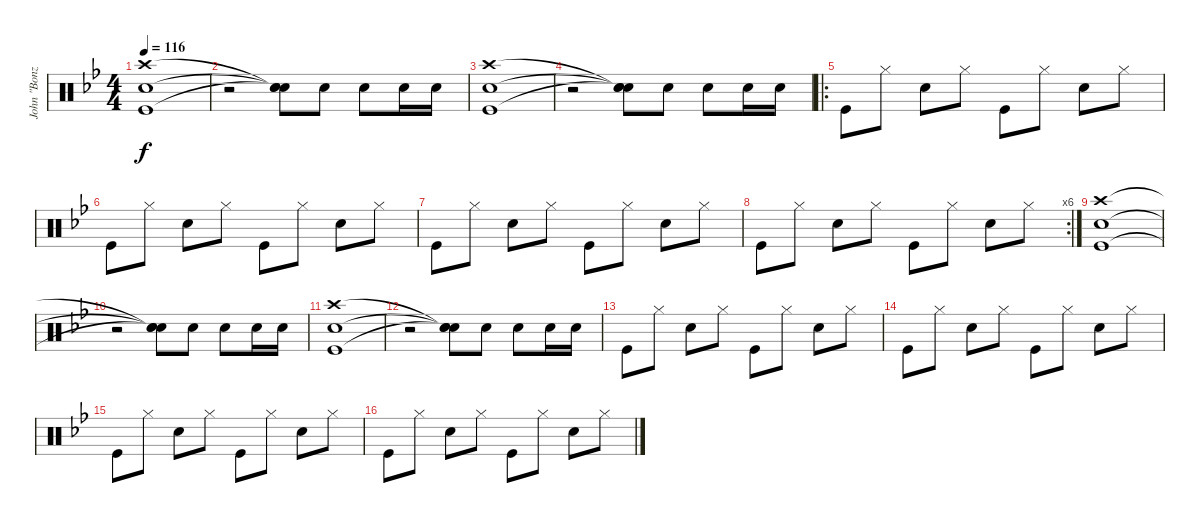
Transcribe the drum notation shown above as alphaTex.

\track ("John \"Bonzo\" Bonham" "John \"Bonz") {instrument percussion}
\staff {score}
\articulation defaults
\ts (4 4)
\tempo 116
\clef neutral
\ks bb
("Kick (hit)" "Snare (hit) 2" "Crash high (hit)").1{dy f} |
r.2 ("Snare (hit)"{t} "Snare (hit)"{t} "Snare (hit)"{t}).8 "Snare (hit) 2".8 "Snare (hit) 2".8 "Snare (hit) 2".16 "Snare (hit) 2".16 |
("Kick (hit)" "Snare (hit) 2" "Crash high (hit)").1 |
r.2 ("Snare (hit)"{t} "Snare (hit)"{t} "Snare (hit)"{t}).8 "Snare (hit) 2".8 "Snare (hit) 2".8 "Snare (hit) 2".16 "Snare (hit) 2".16 |
\ro "Kick (hit)".8 "Hi-Hat (closed)".8 "Snare (hit) 2".8 "Hi-Hat (closed)".8 "Kick (hit)".8 "Hi-Hat (closed)".8 "Snare (hit) 2".8 "Hi-Hat (closed)".8
|
"Kick (hit)".8 "Hi-Hat (closed)".8 "Snare (hit) 2".8 "Hi-Hat (closed)".8 "Kick (hit)".8 "Hi-Hat (closed)".8 "Snare (hit) 2".8 "Hi-Hat (closed)".8 |
"Kick (hit)".8 "Hi-Hat (closed)".8 "Snare (hit) 2".8 "Hi-Hat (closed)".8 "Kick (hit)".8 "Hi-Hat (closed)".8 "Snare (hit) 2".8 "Hi-Hat (closed)".8 |
\rc 6 "Kick (hit)".8 "Hi-Hat (closed)".8 "Snare (hit) 2".8 "Hi-Hat (closed)".8 "Kick (hit)".8 "Hi-Hat (closed)".8 "Snare (hit) 2".8 "Hi-Hat (closed)".8
|
("Kick (hit)" "Snare (hit) 2" "Crash high (hit)").1 |
r.2 ("Snare (hit)"{t} "Snare (hit)"{t} "Snare (hit)"{t}).8 "Snare (hit) 2".8 "Snare (hit) 2".8 "Snare (hit) 2".16 "Snare (hit) 2".16 |
("Kick (hit)" "Snare (hit) 2" "Crash high (hit)").1 |
r.2 ("Snare (hit)"{t} "Snare (hit)"{t} "Snare (hit)"{t}).8 "Snare (hit) 2".8 "Snare (hit) 2".8 "Snare (hit) 2".16 "Snare (hit) 2".16 |
"Kick (hit)".8 "Hi-Hat (closed)".8 "Snare (hit) 2".8 "Hi-Hat (closed)".8 "Kick (hit)".8 "Hi-Hat (closed)".8 "Snare (hit) 2".8 "Hi-Hat (closed)".8 |
"Kick (hit)".8 "Hi-Hat (closed)".8 "Snare (hit) 2".8 "Hi-Hat (closed)".8 "Kick (hit)".8 "Hi-Hat (closed)".8 "Snare (hit) 2".8 "Hi-Hat (closed)".8 |
"Kick (hit)".8 "Hi-Hat (closed)".8 "Snare (hit) 2".8 "Hi-Hat (closed)".8 "Kick (hit)".8 "Hi-Hat (closed)".8 "Snare (hit) 2".8 "Hi-Hat (closed)".8 |
"Kick (hit)".8 "Hi-Hat (closed)".8 "Snare (hit) 2".8 "Hi-Hat (closed)".8 "Kick (hit)".8 "Hi-Hat (closed)".8 "Snare (hit) 2".8 "Hi-Hat (closed)".8
